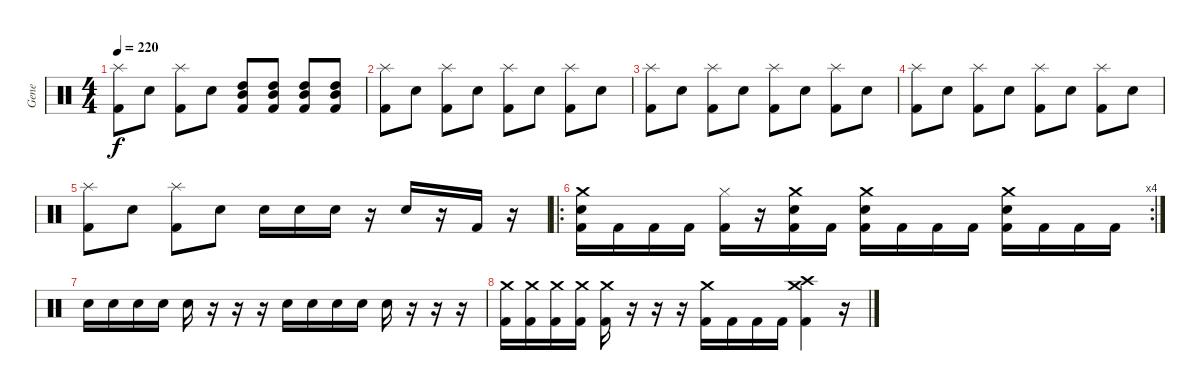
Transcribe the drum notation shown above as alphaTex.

\track ("Gene" "Gene") {instrument percussion}
\staff {score}
\articulation defaults
\ts (4 4)
\tempo 220
\clef neutral
\ks c
("Splash (hit)" "Kick (hit) 2").8{dy f} "Electric Snare (hit)".8 ("Splash (hit)" "Kick (hit) 2").8 "Electric Snare (hit)".8 ("High Tom (hit)" "Mid Tom (hit)" "Kick (hit) 2").8 ("High Tom (hit)" "Mid Tom (hit)" "Kick (hit) 2").8 ("High Tom (hit)" "Mid Tom (hit)" "Kick (hit) 2").8 ("High Tom (hit)" "Mid Tom (hit)" "Kick (hit) 2").8 |
("Splash (hit)" "Kick (hit) 2").8 "Electric Snare (hit)".8 ("Splash (hit)" "Kick (hit) 2").8 "Electric Snare (hit)".8 ("Splash (hit)" "Kick (hit) 2").8 "Electric Snare (hit)".8 ("Splash (hit)" "Kick (hit) 2").8 "Electric Snare (hit)".8 |
("Splash (hit)" "Kick (hit) 2").8 "Electric Snare (hit)".8 ("Splash (hit)" "Kick (hit) 2").8 "Electric Snare (hit)".8 ("Splash (hit)" "Kick (hit) 2").8 "Electric Snare (hit)".8 ("Splash (hit)" "Kick (hit) 2").8 "Electric Snare (hit)".8 |
("Splash (hit)" "Kick (hit) 2").8 "Electric Snare (hit)".8 ("Splash (hit)" "Kick (hit) 2").8 "Electric Snare (hit)".8 ("Splash (hit)" "Kick (hit) 2").8 "Electric Snare (hit)".8 ("Splash (hit)" "Kick (hit) 2").8 "Electric Snare (hit)".8 |
("Splash (hit)" "Kick (hit) 2").8 "Electric Snare (hit)".8 ("Splash (hit)" "Kick (hit) 2").8 "Electric Snare (hit)".8 "Electric Snare (hit)".16 "Electric Snare (hit)".16 "Electric Snare (hit)".16 r.16 "Electric Snare (hit)".16 r.16 "Kick (hit) 2".16 r.16 |
\ro
\rc 4
("Crash medium (hit)" "Electric Snare (hit)" "Kick (hit) 2").16 "Kick (hit) 2".16 "Kick (hit) 2".16 "Kick (hit) 2".16 ("Hi-Hat (closed)" "Kick (hit) 2").16 r.16 ("Crash medium (hit)" "Electric Snare (hit)" "Kick (hit) 2").16 "Kick (hit) 2".16 ("Crash medium (hit)" "Electric Snare (hit)" "Kick (hit) 2").16 "Kick (hit) 2".16 "Kick (hit) 2".16 "Kick (hit) 2".16 ("Crash medium (hit)" "Electric Snare (hit)" "Kick (hit) 2").16 "Kick (hit) 2".16 "Kick (hit) 2".16 "Kick (hit) 2".16 |
"Electric Snare (hit)".16 "Electric Snare (hit)".16 "Electric Snare (hit)".16 "Electric Snare (hit)".16 "Electric Snare (hit)".16 r.16 r.16 r.16 "Electric Snare (hit)".16 "Electric Snare (hit)".16 "Electric Snare (hit)".16 "Electric Snare (hit)".16 "Electric Snare (hit)".16 r.16 r.16 r.16 |
("Crash medium (hit)" "Kick (hit) 2").16 ("Crash medium (hit)" "Kick (hit) 2").16 ("Crash medium (hit)" "Kick (hit) 2").16 ("Crash medium (hit)" "Kick (hit) 2").16 ("Crash medium (hit)" "Kick (hit) 2").16 r.16 r.16 r.16 ("Crash medium (hit)" "Kick (hit) 2").16 "Kick (hit) 2".16 "Kick (hit) 2".16 "Kick (hit) 2".16 ("Crash medium (hit)" "Crash high (hit)" "Kick (hit) 2").4 r.16
